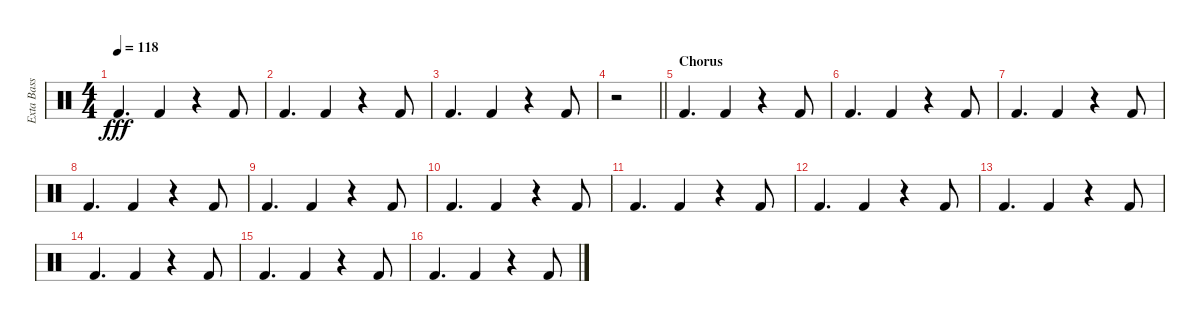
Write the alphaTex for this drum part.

\track ("Exta Bass Boost" "Exta Bass ") {instrument percussion}
\staff {score}
\articulation defaults
\ts (4 4)
\tempo 118
\clef neutral
\ks c "Kick (hit) 2".4{d dy fff} "Kick (hit) 2".4
r.4 "Kick (hit) 2".8 |
"Kick (hit) 2".4{d} "Kick (hit) 2".4 r.4 "Kick (hit) 2".8 |
"Kick (hit) 2".4{d} "Kick (hit) 2".4 r.4 "Kick (hit) 2".8 |
\barLineRight lightlight
r.2 |
\section ("" "Chorus")
"Kick (hit) 2".4{d} "Kick (hit) 2".4 r.4 "Kick (hit) 2".8 |
"Kick (hit) 2".4{d} "Kick (hit) 2".4 r.4 "Kick (hit) 2".8 |
"Kick (hit) 2".4{d} "Kick (hit) 2".4 r.4 "Kick (hit) 2".8 |
"Kick (hit) 2".4{d} "Kick (hit) 2".4 r.4 "Kick (hit) 2".8 |
"Kick (hit) 2".4{d} "Kick (hit) 2".4 r.4 "Kick (hit) 2".8 |
"Kick (hit) 2".4{d} "Kick (hit) 2".4 r.4 "Kick (hit) 2".8 |
"Kick (hit) 2".4{d} "Kick (hit) 2".4 r.4 "Kick (hit) 2".8 |
"Kick (hit) 2".4{d} "Kick (hit) 2".4 r.4 "Kick (hit) 2".8 |
"Kick (hit) 2".4{d} "Kick (hit) 2".4 r.4 "Kick (hit) 2".8 |
"Kick (hit) 2".4{d} "Kick (hit) 2".4 r.4 "Kick (hit) 2".8 |
"Kick (hit) 2".4{d} "Kick (hit) 2".4 r.4 "Kick (hit) 2".8 |
"Kick (hit) 2".4{d} "Kick (hit) 2".4 r.4 "Kick (hit) 2".8
